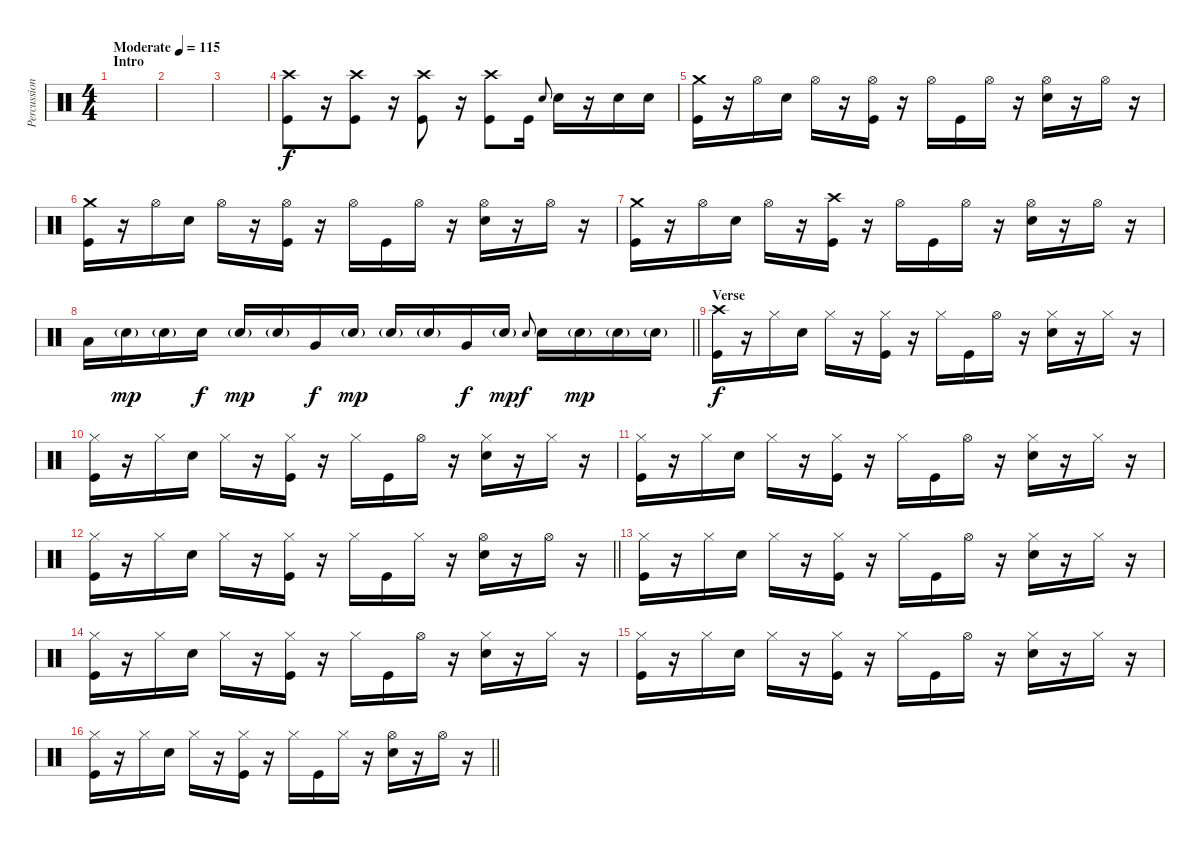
\track ("Percussion" "Percussion") {instrument percussion}
\staff {score}
\articulation defaults
\ts (4 4)
\section ("" "Intro")
\tempo (115 "Moderate")
\clef neutral
\ks c
|
|
|
("Crash high (hit)" "Kick (hit)").8 r.16 ("Crash high (hit)" "Kick (hit)").8 r.16 ("Crash high (hit)" "Kick (hit)").8 r.16 ("Crash high (hit)" "Kick (hit)").8 "Kick (hit)".16 "Electric Snare (hit)".8{gr onbeat} "Electric Snare (hit)".16 r.16 "Electric Snare (hit)".16 "Electric Snare (hit)".16 |
("Crash medium (hit)" "Kick (hit)").16 r.16 "Hi-Hat (open)".16 "Electric Snare (hit)".16 "Hi-Hat (open)".16 r.16 ("Hi-Hat (open)" "Kick (hit)").16 r.16 "Hi-Hat (open)".16 "Kick (hit)".16 "Hi-Hat (open)".16 r.16 ("Hi-Hat (open)" "Electric Snare (hit)").16 r.16 "Hi-Hat (open)".16 r.16 |
("Crash medium (hit)" "Kick (hit)").16 r.16 "Hi-Hat (open)".16 "Electric Snare (hit)".16 "Hi-Hat (open)".16 r.16 ("Hi-Hat (open)" "Kick (hit)").16 r.16 "Hi-Hat (open)".16 "Kick (hit)".16 "Hi-Hat (open)".16 r.16 ("Hi-Hat (open)" "Electric Snare (hit)").16 r.16 "Hi-Hat (open)".16 r.16 |
("Crash medium (hit)" "Kick (hit)").16 r.16 "Hi-Hat (open)".16 "Electric Snare (hit)".16 "Hi-Hat (open)".16 r.16 ("Crash high (hit)" "Kick (hit)").16 r.16 "Hi-Hat (open)".16 "Kick (hit)".16 "Hi-Hat (open)".16 r.16 ("Hi-Hat (open)" "Electric Snare (hit)").16 r.16 "Hi-Hat (open)".16 r.16 |
\barLineRight lightlight "Low Tom (hit)".16 "Electric Snare (hit)"{g}.16{dy mp} "Electric Snare (hit)"{g}.16 "Electric Snare (hit)".16{dy f} "Electric Snare (hit)"{g}.16{dy mp} "Electric Snare (hit)"{g}.16 "Very Low Tom (hit)".16{dy f} "Electric Snare (hit)"{g}.16{dy mp} "Electric Snare (hit)"{g}.16 "Electric Snare (hit)"{g}.16 "Very Low Tom (hit)".16{dy f} "Electric Snare (hit)"{g}.16{dy mp} "Electric Snare (hit)".8{gr onbeat dy f} "Electric Snare (hit)".16 "Electric Snare (hit)"{g}.16{dy mp} "Electric Snare (hit)"{g}.16 "Electric Snare (hit)"{g}.16
|
\section ("" "Verse")
("Crash high (hit)" "Kick (hit)").16{dy f} r.16 "Hi-Hat (closed)".16 "Electric Snare (hit)".16 "Hi-Hat (closed)".16 r.16 ("Hi-Hat (closed)" "Kick (hit)").16 r.16 "Hi-Hat (closed)".16 "Kick (hit)".16 "Hi-Hat (open)".16 r.16 ("Hi-Hat (closed)" "Electric Snare (hit)").16 r.16 "Hi-Hat (closed)".16 r.16 |
("Hi-Hat (closed)" "Kick (hit)").16 r.16 "Hi-Hat (closed)".16 "Electric Snare (hit)".16 "Hi-Hat (closed)".16 r.16 ("Hi-Hat (closed)" "Kick (hit)").16 r.16 "Hi-Hat (closed)".16 "Kick (hit)".16 "Hi-Hat (open)".16 r.16 ("Hi-Hat (closed)" "Electric Snare (hit)").16 r.16 "Hi-Hat (closed)".16 r.16 |
("Hi-Hat (closed)" "Kick (hit)").16 r.16 "Hi-Hat (closed)".16 "Electric Snare (hit)".16 "Hi-Hat (closed)".16 r.16 ("Hi-Hat (closed)" "Kick (hit)").16 r.16 "Hi-Hat (closed)".16 "Kick (hit)".16 "Hi-Hat (open)".16 r.16 ("Hi-Hat (closed)" "Electric Snare (hit)").16 r.16 "Hi-Hat (closed)".16 r.16 |
\barLineRight lightlight
("Hi-Hat (closed)" "Kick (hit)").16 r.16 "Hi-Hat (closed)".16 "Electric Snare (hit)".16 "Hi-Hat (closed)".16 r.16 ("Hi-Hat (closed)" "Kick (hit)").16 r.16 "Hi-Hat (closed)".16 "Kick (hit)".16 "Hi-Hat (closed)".16 r.16 ("Hi-Hat (open)" "Electric Snare (hit)").16 r.16 "Hi-Hat (open)".16 r.16 |
("Hi-Hat (closed)" "Kick (hit)").16 r.16 "Hi-Hat (closed)".16 "Electric Snare (hit)".16 "Hi-Hat (closed)".16 r.16 ("Hi-Hat (closed)" "Kick (hit)").16 r.16 "Hi-Hat (closed)".16 "Kick (hit)".16 "Hi-Hat (open)".16 r.16 ("Hi-Hat (closed)" "Electric Snare (hit)").16 r.16 "Hi-Hat (closed)".16 r.16 |
("Hi-Hat (closed)" "Kick (hit)").16 r.16 "Hi-Hat (closed)".16 "Electric Snare (hit)".16 "Hi-Hat (closed)".16 r.16 ("Hi-Hat (closed)" "Kick (hit)").16 r.16 "Hi-Hat (closed)".16 "Kick (hit)".16 "Hi-Hat (open)".16 r.16 ("Hi-Hat (closed)" "Electric Snare (hit)").16 r.16 "Hi-Hat (closed)".16 r.16 |
("Hi-Hat (closed)" "Kick (hit)").16 r.16 "Hi-Hat (closed)".16 "Electric Snare (hit)".16 "Hi-Hat (closed)".16 r.16 ("Hi-Hat (closed)" "Kick (hit)").16 r.16 "Hi-Hat (closed)".16 "Kick (hit)".16 "Hi-Hat (open)".16 r.16 ("Hi-Hat (closed)" "Electric Snare (hit)").16 r.16 "Hi-Hat (closed)".16 r.16 |
\barLineRight lightlight
("Hi-Hat (closed)" "Kick (hit)").16 r.16 "Hi-Hat (closed)".16 "Electric Snare (hit)".16 "Hi-Hat (closed)".16 r.16 ("Hi-Hat (closed)" "Kick (hit)").16 r.16 "Hi-Hat (closed)".16 "Kick (hit)".16 "Hi-Hat (closed)".16 r.16 ("Hi-Hat (open)" "Electric Snare (hit)").16 r.16 "Hi-Hat (open)".16 r.16
